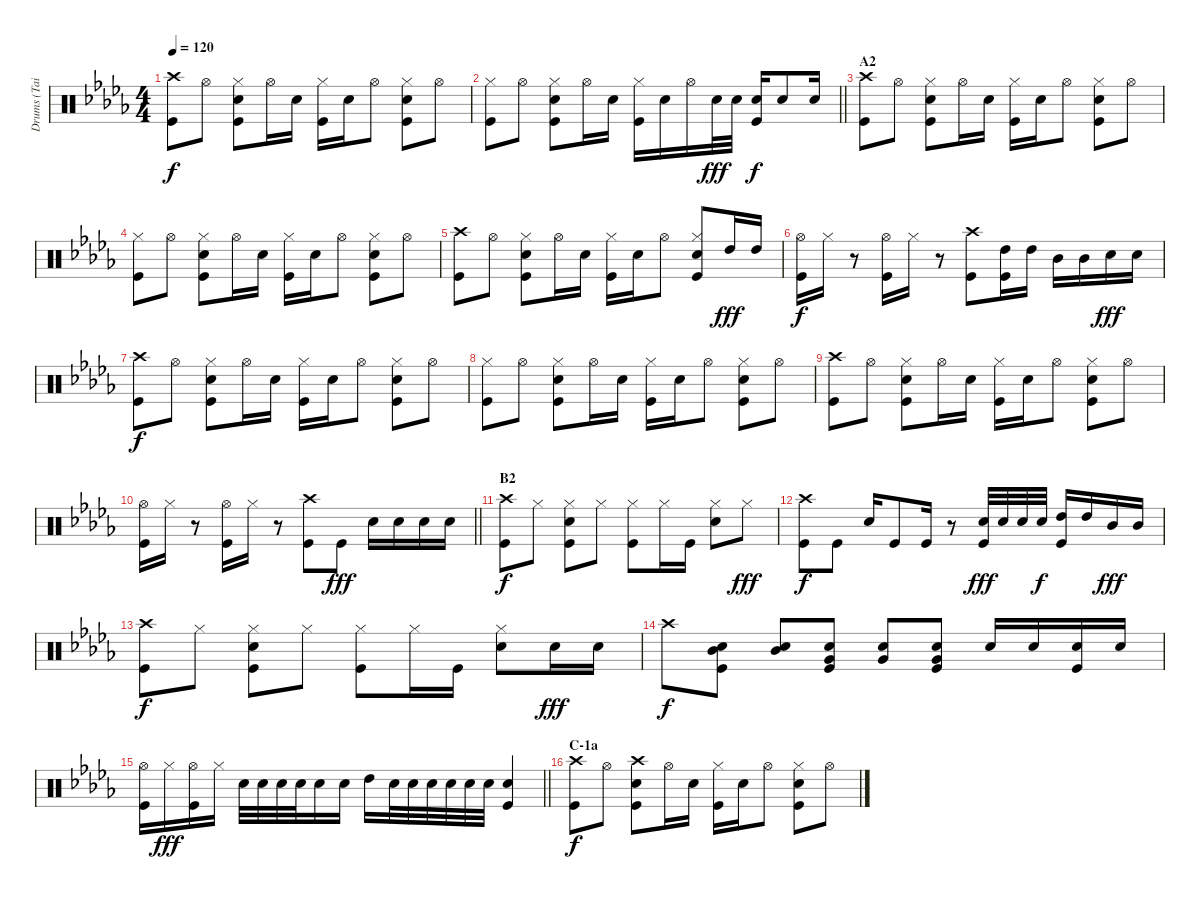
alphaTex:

\track ("Drums (Tainaka Ritsu)" "Drums (Tai") {instrument percussion}
\staff {score}
\articulation defaults
\ts (4 4)
\tempo 120
\clef neutral
\ks db
("Crash high (hit)" "Kick (hit)").8{dy f} "Hi-Hat (open)".8 ("Hi-Hat (closed)" "Snare (hit) 2" "Kick (hit)").8 "Hi-Hat (open)".16 "Snare (hit) 2".16 ("Hi-Hat (closed)" "Kick (hit)").16 "Snare (hit) 2".16 "Hi-Hat (open)".8 ("Hi-Hat (closed)" "Snare (hit) 2" "Kick (hit)").8 "Hi-Hat (open)".8 |
\barLineRight lightlight
("Hi-Hat (closed)" "Kick (hit)").8 "Hi-Hat (open)".8 ("Hi-Hat (closed)" "Snare (hit) 2" "Kick (hit)").8 "Hi-Hat (open)".16 "Snare (hit) 2".16 ("Hi-Hat (closed)" "Kick (hit)").16 "Snare (hit) 2".16 "Hi-Hat (open)".16 "Snare (hit) 2".32{dy fff} "Snare (hit) 2".32 ("Snare (hit) 2" "Kick (hit)").16{dy f} "Snare (hit) 2".8 "Snare (hit) 2".16 |
\section ("" "A2")
("Crash high (hit)" "Kick (hit)").8 "Hi-Hat (open)".8 ("Hi-Hat (closed)" "Snare (hit) 2" "Kick (hit)").8 "Hi-Hat (open)".16 "Snare (hit) 2".16 ("Hi-Hat (closed)" "Kick (hit)").16 "Snare (hit) 2".16 "Hi-Hat (open)".8 ("Hi-Hat (closed)" "Snare (hit) 2" "Kick (hit)").8 "Hi-Hat (open)".8 |
("Hi-Hat (closed)" "Kick (hit)").8 "Hi-Hat (open)".8 ("Hi-Hat (closed)" "Snare (hit) 2" "Kick (hit)").8 "Hi-Hat (open)".16 "Snare (hit) 2".16 ("Hi-Hat (closed)" "Kick (hit)").16 "Snare (hit) 2".16 "Hi-Hat (open)".8 ("Hi-Hat (closed)" "Snare (hit) 2" "Kick (hit)").8 "Hi-Hat (open)".8 |
("Crash high (hit)" "Kick (hit)").8 "Hi-Hat (open)".8 ("Hi-Hat (closed)" "Snare (hit) 2" "Kick (hit)").8 "Hi-Hat (open)".16 "Snare (hit) 2".16 ("Hi-Hat (closed)" "Kick (hit)").16 "Snare (hit) 2".16 "Hi-Hat (open)".8 ("Hi-Hat (closed)" "Snare (hit) 2" "Kick (hit)").8 "High Tom (hit)".16{dy fff} "High Tom (hit)".16 |
("Hi-Hat (open)" "Kick (hit)").16{dy f} "Hi-Hat (closed)".16 r.8 ("Hi-Hat (open)" "Kick (hit)").16 "Hi-Hat (closed)".16 r.8 ("Crash high (hit)" "Kick (hit)").8 ("High Tom (hit)" "Kick (hit)").16 "High Tom (hit)".16 "Mid Tom (hit)".16 "Mid Tom (hit)".16 "Snare (hit) 2".16{dy fff} "Snare (hit) 2".16 |
("Crash high (hit)" "Kick (hit)").8{dy f} "Hi-Hat (open)".8 ("Hi-Hat (closed)" "Snare (hit) 2" "Kick (hit)").8 "Hi-Hat (open)".16 "Snare (hit) 2".16 ("Hi-Hat (closed)" "Kick (hit)").16 "Snare (hit) 2".16 "Hi-Hat (open)".8 ("Hi-Hat (closed)" "Snare (hit) 2" "Kick (hit)").8 "Hi-Hat (open)".8 |
("Hi-Hat (closed)" "Kick (hit)").8 "Hi-Hat (open)".8 ("Hi-Hat (closed)" "Snare (hit) 2" "Kick (hit)").8 "Hi-Hat (open)".16 "Snare (hit) 2".16 ("Hi-Hat (closed)" "Kick (hit)").16 "Snare (hit) 2".16 "Hi-Hat (open)".8 ("Hi-Hat (closed)" "Snare (hit) 2" "Kick (hit)").8 "Hi-Hat (open)".8 |
("Crash high (hit)" "Kick (hit)").8 "Hi-Hat (open)".8 ("Hi-Hat (closed)" "Snare (hit) 2" "Kick (hit)").8 "Hi-Hat (open)".16 "Snare (hit) 2".16 ("Hi-Hat (closed)" "Kick (hit)").16 "Snare (hit) 2".16 "Hi-Hat (open)".8 ("Hi-Hat (closed)" "Snare (hit) 2" "Kick (hit)").8 "Hi-Hat (open)".8 |
\barLineRight lightlight
("Hi-Hat (open)" "Kick (hit)").16 "Hi-Hat (closed)".16 r.8 ("Hi-Hat (open)" "Kick (hit)").16 "Hi-Hat (closed)".16 r.8 ("Crash high (hit)" "Kick (hit)").8 "Kick (hit)".8{dy fff} "Snare (hit) 2".16 "Snare (hit) 2".16 "Snare (hit) 2".16 "Snare (hit) 2".16 |
\section ("" "B2")
("Crash high (hit)" "Kick (hit)").8{dy f} "Hi-Hat (closed)".8 ("Hi-Hat (closed)" "Snare (hit) 2" "Kick (hit)").8 "Hi-Hat (closed)".8 ("Hi-Hat (closed)" "Kick (hit)").8 "Hi-Hat (closed)".16 "Kick (hit)".16 ("Hi-Hat (closed)" "Snare (hit) 2").8 "Hi-Hat (closed)".8{dy fff} |
("Crash high (hit)" "Kick (hit)").8{dy f} "Kick (hit)".8 "Snare (hit) 2".16 "Kick (hit)".8 "Kick (hit)".16 r.8 ("Snare (hit) 2" "Kick (hit)").32{dy fff} "Snare (hit) 2".32 "Snare (hit) 2".32 "Snare (hit) 2".32{dy f} ("High Tom (hit)" "Kick (hit)").16 "High Tom (hit)".16 "Mid Tom (hit)".16{dy fff} "Mid Tom (hit)".16 |
("Crash high (hit)" "Kick (hit)").8{dy f} "Hi-Hat (closed)".8 ("Hi-Hat (closed)" "Snare (hit) 2" "Kick (hit)").8 "Hi-Hat (closed)".8 ("Hi-Hat (closed)" "Kick (hit)").8 "Hi-Hat (closed)".16 "Kick (hit)".16 ("Hi-Hat (closed)" "Snare (hit) 2").8 "Snare (hit) 2".16{dy fff} "Snare (hit) 2".16 |
"Crash high (hit)".8{dy f} ("Snare (hit) 2" "Mid Tom (hit)" "Kick (hit)").8 ("Snare (hit) 2" "Mid Tom (hit)").8 ("Snare (hit) 2" "Very Low Tom (hit)" "Kick (hit)").8 ("Snare (hit) 2" "Very Low Tom (hit)").8 ("Snare (hit) 2" "Very Low Tom (hit)" "Kick (hit)").8 "Snare (hit) 2".16 "Snare (hit) 2".16 ("Snare (hit) 2" "Kick (hit)").16 "Snare (hit) 2".16 |
\barLineRight lightlight
("Hi-Hat (open)" "Kick (hit)").16 "Hi-Hat (closed)".16{dy fff} ("Hi-Hat (open)" "Kick (hit)").16 "Hi-Hat (closed)".16 "Snare (hit) 2".32 "Snare (hit) 2".32 "Snare (hit) 2".32 "Snare (hit) 2".32 "Snare (hit) 2".16 "Snare (hit) 2".16 "High Tom (hit)".16 "Snare (hit) 2".32 "Snare (hit) 2".32 "Snare (hit) 2".32 "Snare (hit) 2".32 "Snare (hit) 2".32 "Snare (hit) 2".32 ("Snare (hit) 2" "Kick (hit)").4 |
\section ("" "C-1a")
("Crash high (hit)" "Kick (hit)").8{dy f} "Hi-Hat (open)".8 ("Crash high (hit)" "Snare (hit) 2" "Kick (hit)").8 "Hi-Hat (open)".16 "Snare (hit) 2".16 ("Hi-Hat (closed)" "Kick (hit)").16 "Snare (hit) 2".16 "Hi-Hat (open)".8 ("Hi-Hat (closed)" "Snare (hit) 2" "Kick (hit)").8 "Hi-Hat (open)".8
